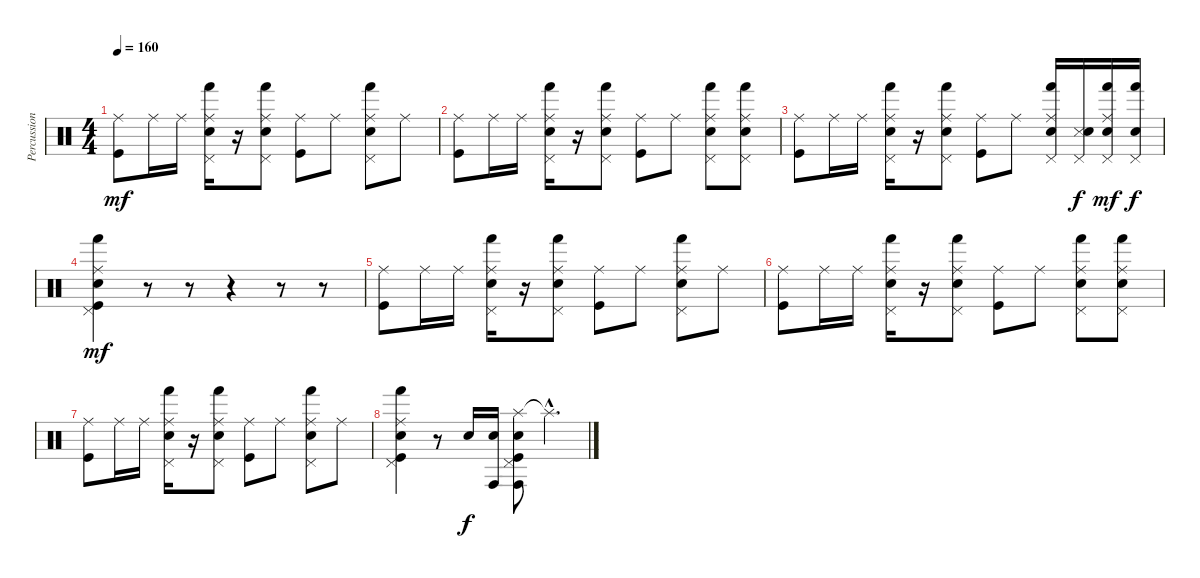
\track ("Percussion" "Percussion") {instrument percussion}
\staff {score}
\articulation defaults
\ts (4 4)
\tempo 160
\clef neutral
\ks c
("Ride (middle)" "Kick (hit)").8{dy mf} "Ride (middle)".16 "Ride (middle)".16 ("Ride (middle)" "Pedal Hi-Hat (hit)" "Hand (hit)" "Electric Snare (hit)").16 r.16 ("Ride (middle)" "Pedal Hi-Hat (hit)" "Hand (hit)" "Electric Snare (hit)").8 ("Ride (middle)" "Kick (hit)").8 "Ride (middle)".8 ("Ride (middle)" "Pedal Hi-Hat (hit)" "Hand (hit)" "Electric Snare (hit)").8 "Ride (middle)".8 |
("Ride (middle)" "Kick (hit)").8 "Ride (middle)".16 "Ride (middle)".16 ("Ride (middle)" "Pedal Hi-Hat (hit)" "Hand (hit)" "Electric Snare (hit)").16 r.16 ("Ride (middle)" "Pedal Hi-Hat (hit)" "Hand (hit)" "Electric Snare (hit)").8 ("Ride (middle)" "Kick (hit)").8 "Ride (middle)".8 ("Ride (middle)" "Pedal Hi-Hat (hit)" "Hand (hit)" "Electric Snare (hit)").8 ("Ride (middle)" "Pedal Hi-Hat (hit)" "Hand (hit)" "Electric Snare (hit)").8 |
("Ride (middle)" "Kick (hit)").8 "Ride (middle)".16 "Ride (middle)".16 ("Ride (middle)" "Pedal Hi-Hat (hit)" "Hand (hit)" "Electric Snare (hit)").16 r.16 ("Ride (middle)" "Pedal Hi-Hat (hit)" "Hand (hit)" "Electric Snare (hit)").8 ("Ride (middle)" "Kick (hit)").8 "Ride (middle)".8 ("Ride (middle)" "Pedal Hi-Hat (hit)" "Hand (hit)" "Electric Snare (hit)").16 ("Pedal Hi-Hat (hit)" "Snare (side stick) 3" "Electric Snare (hit)").16{dy f} ("Ride (middle)" "Pedal Hi-Hat (hit)" "Hand (hit)" "Electric Snare (hit)").16{dy mf} ("Pedal Hi-Hat (hit)" "Hand (hit)" "Electric Snare (hit)").16{dy f} |
("Ride (middle)" "Pedal Hi-Hat (hit)" "Hand (hit)" "Electric Snare (hit)" "Kick (hit)").4{dy mf} r.8 r.8 r.4 r.8 r.8 |
("Ride (middle)" "Kick (hit)").8 "Ride (middle)".16 "Ride (middle)".16 ("Ride (middle)" "Pedal Hi-Hat (hit)" "Hand (hit)" "Electric Snare (hit)").16 r.16 ("Ride (middle)" "Pedal Hi-Hat (hit)" "Hand (hit)" "Electric Snare (hit)").8 ("Ride (middle)" "Kick (hit)").8 "Ride (middle)".8 ("Ride (middle)" "Pedal Hi-Hat (hit)" "Hand (hit)" "Electric Snare (hit)").8 "Ride (middle)".8 |
("Ride (middle)" "Kick (hit)").8 "Ride (middle)".16 "Ride (middle)".16 ("Ride (middle)" "Pedal Hi-Hat (hit)" "Hand (hit)" "Electric Snare (hit)").16 r.16 ("Ride (middle)" "Pedal Hi-Hat (hit)" "Hand (hit)" "Electric Snare (hit)").8 ("Ride (middle)" "Kick (hit)").8 "Ride (middle)".8 ("Ride (middle)" "Pedal Hi-Hat (hit)" "Hand (hit)" "Electric Snare (hit)").8 ("Ride (middle)" "Pedal Hi-Hat (hit)" "Hand (hit)" "Electric Snare (hit)").8 |
("Ride (middle)" "Kick (hit)").8 "Ride (middle)".16 "Ride (middle)".16 ("Ride (middle)" "Pedal Hi-Hat (hit)" "Hand (hit)" "Electric Snare (hit)").16 r.16 ("Ride (middle)" "Pedal Hi-Hat (hit)" "Hand (hit)" "Electric Snare (hit)").8 ("Ride (middle)" "Kick (hit)").8 "Ride (middle)".8 ("Ride (middle)" "Pedal Hi-Hat (hit)" "Hand (hit)" "Electric Snare (hit)").8 "Ride (middle)".8 |
("Ride (middle)" "Pedal Hi-Hat (hit)" "Hand (hit)" "Electric Snare (hit)" "Kick (hit)").4 r.8 "Electric Snare (hit)".16{dy f} ("Conga high (hit)" "Electric Snare (hit)").16 ("Splash (hit)" "Pedal Hi-Hat (hit)" "Conga high (hit)" "Electric Snare (hit)" "Kick (hit)").8 "Splash (hit)"{hac t}.4{d}
